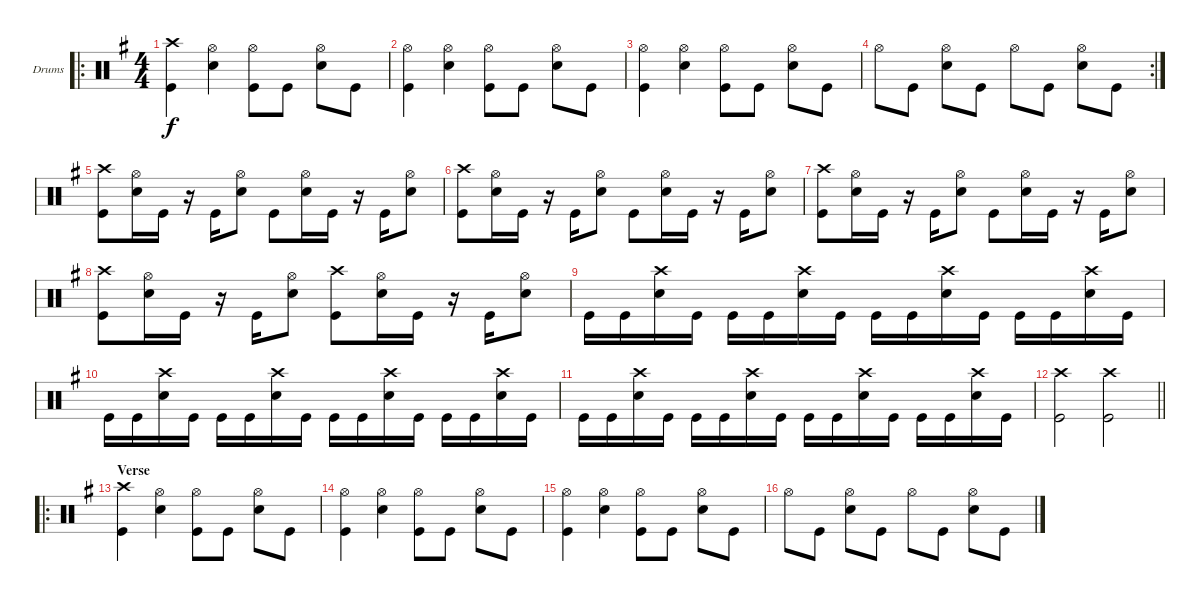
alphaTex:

\defaultSystemsLayout 4
\bracketExtendMode groupsimilarinstruments
\firstSystemTrackNameOrientation horizontal
\otherSystemsTrackNameOrientation horizontal
\track ("Drums" "Drums") {instrument percussion}
\staff {score}
\articulation defaults
\ro
\ts (4 4)
\tempo (188 hide)
\clef neutral
\scale
0.377049
\ks g
("Kick (hit)" "Crash high (hit)").4{dy f} ("Snare (hit) 2" "Hi-Hat (open)").4 ("Kick (hit)" "Hi-Hat (open)").8 "Kick (hit)".8 ("Snare (hit) 2" "Hi-Hat (open)").8 "Kick (hit)".8 |
("Kick (hit)" "Hi-Hat (open)").4 ("Snare (hit) 2" "Hi-Hat (open)").4 ("Kick (hit)" "Hi-Hat (open)").8 "Kick (hit)".8 ("Snare (hit) 2" "Hi-Hat (open)").8 "Kick (hit)".8 |
("Kick (hit)" "Hi-Hat (open)").4 ("Snare (hit) 2" "Hi-Hat (open)").4 ("Kick (hit)" "Hi-Hat (open)").8 "Kick (hit)".8 ("Snare (hit) 2" "Hi-Hat (open)").8 "Kick (hit)".8 |
\rc 2 "Hi-Hat (open)".8 "Kick (hit)".8
("Snare (hit) 2" "Hi-Hat (open)").8 "Kick (hit)".8 "Hi-Hat (open)".8 "Kick (hit)".8 ("Snare (hit) 2" "Hi-Hat (open)").8 "Kick (hit)".8 |
("Kick (hit)" "Crash high (hit)").8 ("Snare (hit) 2" "Hi-Hat (open)").16 "Kick (hit)".16 r.16 "Kick (hit)".16 ("Snare (hit) 2" "Hi-Hat (open)").8 "Kick (hit)".8 ("Snare (hit) 2" "Hi-Hat (open)").16 "Kick (hit)".16 r.16 "Kick (hit)".16 ("Snare (hit) 2" "Hi-Hat (open)").8 |
("Kick (hit)" "Crash high (hit)").8 ("Snare (hit) 2" "Hi-Hat (open)").16 "Kick (hit)".16 r.16 "Kick (hit)".16 ("Snare (hit) 2" "Hi-Hat (open)").8 "Kick (hit)".8 ("Snare (hit) 2" "Hi-Hat (open)").16 "Kick (hit)".16 r.16 "Kick (hit)".16 ("Snare (hit) 2" "Hi-Hat (open)").8 |
("Kick (hit)" "Crash high (hit)").8 ("Snare (hit) 2" "Hi-Hat (open)").16 "Kick (hit)".16 r.16 "Kick (hit)".16 ("Snare (hit) 2" "Hi-Hat (open)").8 "Kick (hit)".8 ("Snare (hit) 2" "Hi-Hat (open)").16 "Kick (hit)".16 r.16 "Kick (hit)".16 ("Snare (hit) 2" "Hi-Hat (open)").8 |
("Kick (hit)" "Crash high (hit)").8 ("Snare (hit) 2" "Hi-Hat (open)").16 "Kick (hit)".16 r.16 "Kick (hit)".16 ("Snare (hit) 2" "Hi-Hat (open)").8 ("Kick (hit)" "Crash high (hit)").8 ("Snare (hit) 2" "Hi-Hat (open)").16 "Kick (hit)".16 r.16 "Kick (hit)".16 ("Snare (hit) 2" "Hi-Hat (open)").8 |
"Kick (hit)".16 "Kick (hit)".16 ("Snare (hit) 2" "Crash high (hit)").16 "Kick (hit)".16 "Kick (hit)".16 "Kick (hit)".16 ("Snare (hit) 2" "Crash high (hit)").16 "Kick (hit)".16 "Kick (hit)".16 "Kick (hit)".16 ("Snare (hit) 2" "Crash high (hit)").16 "Kick (hit)".16 "Kick (hit)".16 "Kick (hit)".16 ("Snare (hit) 2" "Crash high (hit)").16 "Kick (hit)".16 |
"Kick (hit)".16 "Kick (hit)".16 ("Snare (hit) 2" "Crash high (hit)").16 "Kick (hit)".16 "Kick (hit)".16 "Kick (hit)".16 ("Snare (hit) 2" "Crash high (hit)").16 "Kick (hit)".16 "Kick (hit)".16 "Kick (hit)".16 ("Snare (hit) 2" "Crash high (hit)").16 "Kick (hit)".16 "Kick (hit)".16 "Kick (hit)".16 ("Snare (hit) 2" "Crash high (hit)").16 "Kick (hit)".16 |
"Kick (hit)".16 "Kick (hit)".16 ("Snare (hit) 2" "Crash high (hit)").16 "Kick (hit)".16 "Kick (hit)".16 "Kick (hit)".16 ("Snare (hit) 2" "Crash high (hit)").16 "Kick (hit)".16 "Kick (hit)".16 "Kick (hit)".16 ("Snare (hit) 2" "Crash high (hit)").16 "Kick (hit)".16 "Kick (hit)".16 "Kick (hit)".16 ("Snare (hit) 2" "Crash high (hit)").16 "Kick (hit)".16 |
\barLineRight lightlight
("Kick (hit)" "Crash high (hit)").2 ("Kick (hit)" "Crash high (hit)").2 |
\ro
\section ("" "Verse")
("Kick (hit)" "Crash high (hit)").4 ("Snare (hit) 2" "Hi-Hat (open)").4 ("Kick (hit)" "Hi-Hat (open)").8 "Kick (hit)".8 ("Snare (hit) 2" "Hi-Hat (open)").8 "Kick (hit)".8 |
("Kick (hit)" "Hi-Hat (open)").4 ("Snare (hit) 2" "Hi-Hat (open)").4 ("Kick (hit)" "Hi-Hat (open)").8 "Kick (hit)".8 ("Snare (hit) 2" "Hi-Hat (open)").8 "Kick (hit)".8 |
("Kick (hit)" "Hi-Hat (open)").4 ("Snare (hit) 2" "Hi-Hat (open)").4 ("Kick (hit)" "Hi-Hat (open)").8 "Kick (hit)".8 ("Snare (hit) 2" "Hi-Hat (open)").8 "Kick (hit)".8 |
"Hi-Hat (open)".8 "Kick (hit)".8 ("Snare (hit) 2" "Hi-Hat (open)").8 "Kick (hit)".8 "Hi-Hat (open)".8 "Kick (hit)".8 ("Snare (hit) 2" "Hi-Hat (open)").8 "Kick (hit)".8
